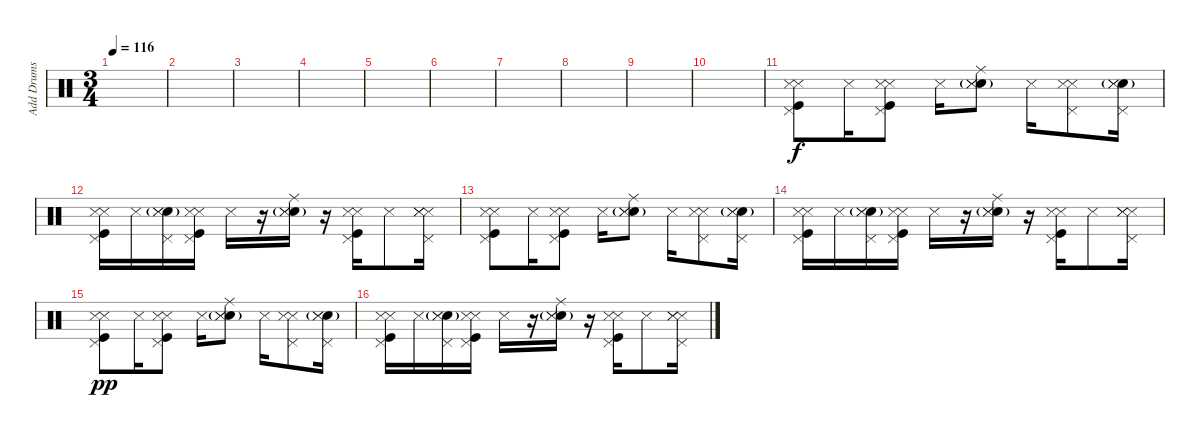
\track ("Add Drums" "Add Drums") {instrument percussion}
\staff {score}
\articulation defaults
\ts (3 4)
\tempo 116
\clef neutral
\ks c
|
|
|
|
|
|
|
|
|
|
("Metronome (hit)" "Kick (hit)" "Pedal Hi-Hat (hit)" "Snare (side stick) 3").8 "Snare (side stick) 3".16 ("Metronome (hit)" "Kick (hit)" "Pedal Hi-Hat (hit)" "Snare (side stick) 3").8 "Snare (side stick) 3".16 ("Electric Snare (hit)"{g} "Metronome (hit)" "Ride (middle)" "Snare (side stick) 3").8 "Snare (side stick) 3".16 ("Metronome (hit)" "Pedal Hi-Hat (hit)" "Snare (side stick) 3").8 ("Electric Snare (hit)"{g} "Metronome (hit)" "Pedal Hi-Hat (hit)" "Snare (side stick) 3").16 |
("Metronome (hit)" "Kick (hit)" "Pedal Hi-Hat (hit)" "Snare (side stick) 3").16 "Snare (side stick) 3".16 ("Electric Snare (hit)"{g} "Metronome (hit)" "Pedal Hi-Hat (hit)" "Snare (side stick) 3").16 ("Kick (hit)" "Metronome (hit)" "Pedal Hi-Hat (hit)" "Snare (side stick) 3").16 "Snare (side stick) 3".16 r.16 ("Electric Snare (hit)"{g} "Metronome (hit)" "Ride (middle)" "Snare (side stick) 3").16 r.16 ("Kick (hit)" "Metronome (hit)" "Pedal Hi-Hat (hit)" "Snare (side stick) 3").16 "Snare (side stick) 3".8 ("Metronome (hit)" "Metronome (hit)" "Pedal Hi-Hat (hit)" "Snare (side stick) 3").16 |
("Metronome (hit)" "Kick (hit)" "Pedal Hi-Hat (hit)" "Snare (side stick) 3").8 "Snare (side stick) 3".16 ("Metronome (hit)" "Kick (hit)" "Pedal Hi-Hat (hit)" "Snare (side stick) 3").8 "Snare (side stick) 3".16 ("Electric Snare (hit)"{g} "Metronome (hit)" "Ride (middle)" "Snare (side stick) 3").8 "Snare (side stick) 3".16 ("Metronome (hit)" "Pedal Hi-Hat (hit)" "Snare (side stick) 3").8 ("Electric Snare (hit)"{g} "Metronome (hit)" "Pedal Hi-Hat (hit)" "Snare (side stick) 3").16 |
("Metronome (hit)" "Kick (hit)" "Pedal Hi-Hat (hit)" "Snare (side stick) 3").16 "Snare (side stick) 3".16 ("Electric Snare (hit)"{g} "Metronome (hit)" "Pedal Hi-Hat (hit)" "Snare (side stick) 3").16 ("Kick (hit)" "Metronome (hit)" "Pedal Hi-Hat (hit)" "Snare (side stick) 3").16 "Snare (side stick) 3".16 r.16 ("Electric Snare (hit)"{g} "Metronome (hit)" "Ride (middle)" "Snare (side stick) 3").16 r.16 ("Kick (hit)" "Metronome (hit)" "Pedal Hi-Hat (hit)" "Snare (side stick) 3").16 "Snare (side stick) 3".8 ("Metronome (hit)" "Metronome (hit)" "Pedal Hi-Hat (hit)" "Snare (side stick) 3").16 |
("Metronome (hit)" "Kick (hit)" "Pedal Hi-Hat (hit)" "Snare (side stick) 3").8{dy pp} "Snare (side stick) 3".16 ("Metronome (hit)" "Kick (hit)" "Pedal Hi-Hat (hit)" "Snare (side stick) 3").8 "Snare (side stick) 3".16 ("Electric Snare (hit)"{g} "Metronome (hit)" "Ride (middle)" "Snare (side stick) 3").8 "Snare (side stick) 3".16 ("Metronome (hit)" "Pedal Hi-Hat (hit)" "Snare (side stick) 3").8 ("Electric Snare (hit)"{g} "Metronome (hit)" "Pedal Hi-Hat (hit)" "Snare (side stick) 3").16 |
("Metronome (hit)" "Kick (hit)" "Pedal Hi-Hat (hit)" "Snare (side stick) 3").16 "Snare (side stick) 3".16 ("Electric Snare (hit)"{g} "Metronome (hit)" "Pedal Hi-Hat (hit)" "Snare (side stick) 3").16 ("Kick (hit)" "Metronome (hit)" "Pedal Hi-Hat (hit)" "Snare (side stick) 3").16 "Snare (side stick) 3".16 r.16 ("Electric Snare (hit)"{g} "Metronome (hit)" "Ride (middle)" "Snare (side stick) 3").16 r.16 ("Kick (hit)" "Metronome (hit)" "Pedal Hi-Hat (hit)" "Snare (side stick) 3").16 "Snare (side stick) 3".8 ("Metronome (hit)" "Metronome (hit)" "Pedal Hi-Hat (hit)" "Snare (side stick) 3").16
